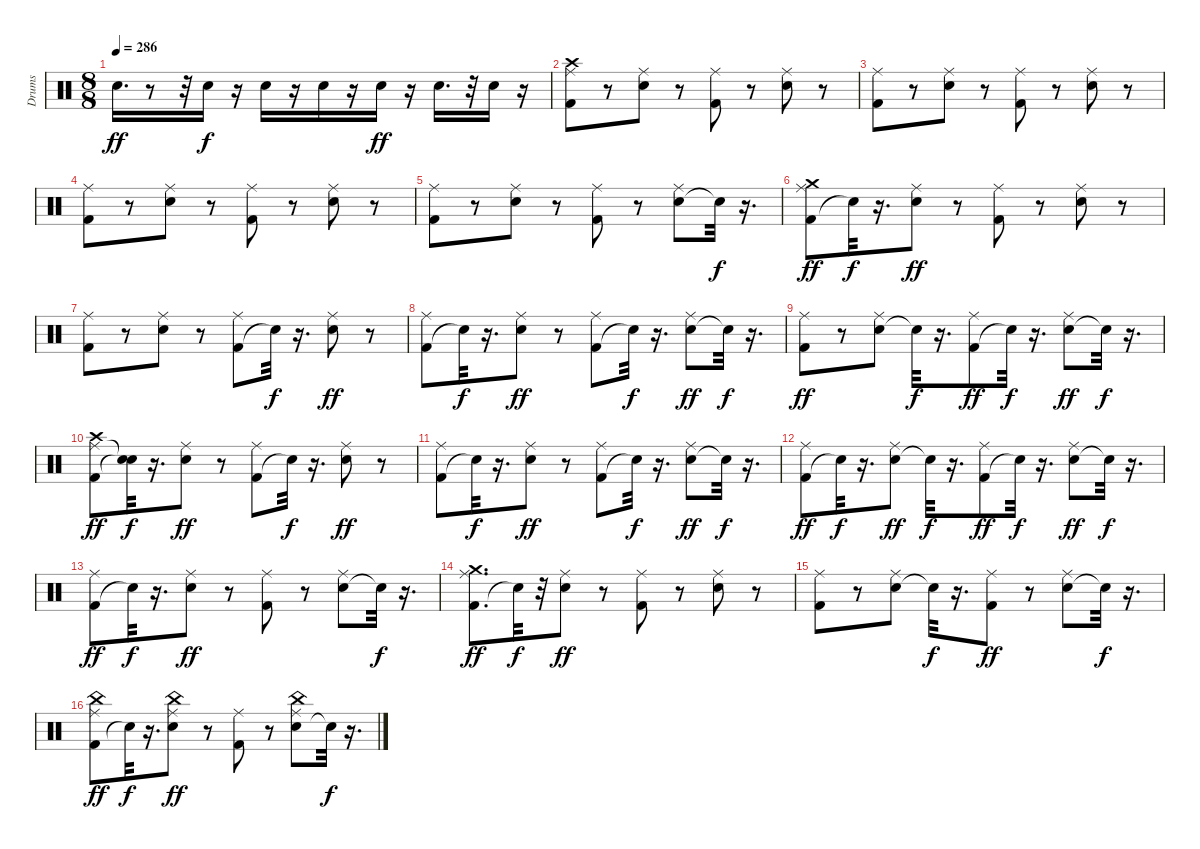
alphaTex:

\track ("Drums" "Drums") {instrument percussion}
\staff {score}
\articulation defaults
\ts (8 8)
\tempo 286
\clef neutral
\ks c "Snare (hit) 2".16{d dy ff}
r.8 r.32 "Snare (hit) 2".16{dy f} r.16 "Snare (hit) 2".16 r.16 "Snare (hit) 2".16 r.16 "Snare (hit) 2".16{dy ff} r.16 "Snare (hit) 2".16{d} r.32 "Snare (hit) 2".16 r.16 |
("Kick (hit) 2" "Ride (middle)" "Crash high (hit)").8 r.8 ("Snare (hit) 2" "Ride (middle)").8 r.8 ("Kick (hit) 2" "Ride (middle)").8 r.8 ("Snare (hit) 2" "Ride (middle)").8 r.8 |
("Kick (hit) 2" "Ride (middle)").8 r.8 ("Snare (hit) 2" "Ride (middle)").8 r.8 ("Kick (hit) 2" "Ride (middle)").8 r.8 ("Snare (hit) 2" "Ride (middle)").8 r.8 |
("Kick (hit) 2" "Ride (middle)").8 r.8 ("Snare (hit) 2" "Ride (middle)").8 r.8 ("Kick (hit) 2" "Ride (middle)").8 r.8 ("Snare (hit) 2" "Ride (middle)").8 r.8 |
("Kick (hit) 2" "Ride (middle)").8 r.8 ("Snare (hit) 2" "Ride (middle)").8 r.8 ("Kick (hit) 2" "Ride (middle)").8 r.8 ("Snare (hit) 2" "Ride (middle)").8 "Snare (hit)"{t}.32{dy f} r.16{d} |
("Kick (hit) 2" "Ride (middle)" "Crash medium (hit)").8{dy ff} "Snare (hit)"{t}.32{dy f} r.16{d} ("Snare (hit) 2" "Ride (middle)").8{dy ff} r.8 ("Kick (hit) 2" "Ride (middle)").8 r.8 ("Snare (hit) 2" "Ride (middle)").8 r.8 |
("Kick (hit) 2" "Ride (middle)").8 r.8 ("Snare (hit) 2" "Ride (middle)").8 r.8 ("Kick (hit) 2" "Ride (middle)").8 "Snare (hit)"{t}.32{dy f} r.16{d} ("Snare (hit) 2" "Ride (middle)").8{dy ff} r.8 |
("Kick (hit) 2" "Ride (middle)").8 "Snare (hit)"{t}.32{dy f} r.16{d} ("Snare (hit) 2" "Ride (middle)").8{dy ff} r.8 ("Kick (hit) 2" "Ride (middle)").8 "Snare (hit)"{t}.32{dy f} r.16{d} ("Snare (hit) 2" "Ride (middle)").8{dy ff} "Snare (hit)"{t}.32{dy f} r.16{d} |
("Kick (hit) 2" "Ride (middle)").8{dy ff} r.8 ("Snare (hit) 2" "Ride (middle)").8 "Snare (hit)"{t}.32{dy f} r.16{d} ("Kick (hit) 2" "Ride (middle)").8{dy ff} "Snare (hit)"{t}.32{dy f} r.16{d} ("Snare (hit) 2" "Ride (middle)").8{dy ff} "Snare (hit)"{t}.32{dy f} r.16{d} |
("Kick (hit) 2" "Ride (middle)" "Crash high (hit)").8{dy ff} ("Snare (hit)"{t} "Snare (hit)"{t}).32{dy f} r.16{d} ("Snare (hit) 2" "Ride (middle)").8{dy ff} r.8 ("Kick (hit) 2" "Ride (middle)").8 "Snare (hit)"{t}.32{dy f} r.16{d} ("Snare (hit) 2" "Ride (middle)").8{dy ff} r.8 |
("Kick (hit) 2" "Ride (middle)").8 "Snare (hit)"{t}.32{dy f} r.16{d} ("Snare (hit) 2" "Ride (middle)").8{dy ff} r.8 ("Kick (hit) 2" "Ride (middle)").8 "Snare (hit)"{t}.32{dy f} r.16{d} ("Snare (hit) 2" "Ride (middle)").8{dy ff} "Snare (hit)"{t}.32{dy f} r.16{d} |
("Kick (hit) 2" "Ride (middle)").8{dy ff} "Snare (hit)"{t}.32{dy f} r.16{d} ("Snare (hit) 2" "Ride (middle)").8{dy ff} "Snare (hit)"{t}.32{dy f} r.16{d} ("Kick (hit) 2" "Ride (middle)").8{dy ff} "Snare (hit)"{t}.32{dy f} r.16{d} ("Snare (hit) 2" "Ride (middle)").8{dy ff} "Snare (hit)"{t}.32{dy f} r.16{d} |
("Kick (hit) 2" "Ride (middle)").8{dy ff} "Snare (hit)"{t}.32{dy f} r.16{d} ("Snare (hit) 2" "Ride (middle)").8{dy ff} r.8 ("Kick (hit) 2" "Ride (middle)").8 r.8 ("Snare (hit) 2" "Ride (middle)").8 "Snare (hit)"{t}.32{dy f} r.16{d} |
("Kick (hit) 2" "Ride (middle)" "Crash medium (hit)").8{d dy ff} "Snare (hit)"{t}.32{dy f} r.32 ("Snare (hit) 2" "Ride (middle)").8{dy ff} r.8 ("Kick (hit) 2" "Ride (middle)").8 r.8 ("Snare (hit) 2" "Ride (middle)").8 r.8 |
("Kick (hit) 2" "Ride (middle)").8 r.8 ("Snare (hit) 2" "Ride (middle)").8 "Snare (hit)"{t}.32{dy f} r.16{d} ("Kick (hit) 2" "Ride (middle)").8{dy ff} r.8 ("Snare (hit) 2" "Ride (middle)").8 "Snare (hit)"{t}.32{dy f} r.16{d} |
("Kick (hit) 2" "Ride (middle)" "China (hit)").8{dy ff} "Snare (hit)"{t}.32{dy f} r.16{d} ("Snare (hit) 2" "Ride (middle)" "China (hit)").8{dy ff} r.8 ("Kick (hit) 2" "Ride (middle)").8 r.8 ("Snare (hit) 2" "Ride (middle)" "China (hit)").8 "Snare (hit)"{t}.32{dy f} r.16{d}
